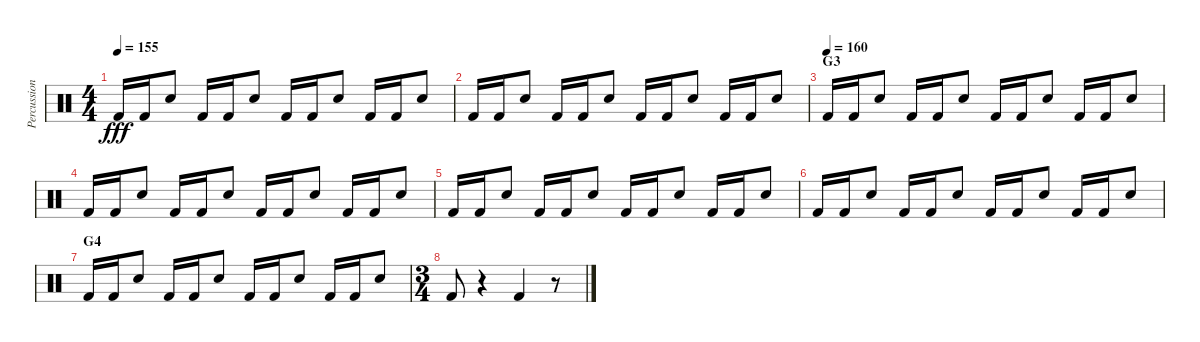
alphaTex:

\track ("Percussion" "Percussion") {instrument percussion}
\staff {score}
\articulation defaults
\ts (4 4)
\tempo 155
\clef neutral
\ks c "Kick (hit) 2".16{dy fff} "Kick (hit) 2".16 "Electric Snare (hit)".8 "Kick (hit) 2".16 "Kick (hit) 2".16 "Electric Snare (hit)".8 "Kick (hit) 2".16 "Kick (hit) 2".16 "Electric Snare (hit)".8 "Kick (hit) 2".16 "Kick (hit) 2".16 "Electric Snare (hit)".8
|
"Kick (hit) 2".16 "Kick (hit) 2".16 "Electric Snare (hit)".8 "Kick (hit) 2".16 "Kick (hit) 2".16 "Electric Snare (hit)".8 "Kick (hit) 2".16 "Kick (hit) 2".16 "Electric Snare (hit)".8 "Kick (hit) 2".16 "Kick (hit) 2".16 "Electric Snare (hit)".8 |
\section ("" "G3")
\tempo (160)
"Kick (hit) 2".16 "Kick (hit) 2".16 "Electric Snare (hit)".8 "Kick (hit) 2".16 "Kick (hit) 2".16 "Electric Snare (hit)".8 "Kick (hit) 2".16 "Kick (hit) 2".16 "Electric Snare (hit)".8 "Kick (hit) 2".16 "Kick (hit) 2".16 "Electric Snare (hit)".8 |
"Kick (hit) 2".16 "Kick (hit) 2".16 "Electric Snare (hit)".8 "Kick (hit) 2".16 "Kick (hit) 2".16 "Electric Snare (hit)".8 "Kick (hit) 2".16 "Kick (hit) 2".16 "Electric Snare (hit)".8 "Kick (hit) 2".16 "Kick (hit) 2".16 "Electric Snare (hit)".8 |
"Kick (hit) 2".16 "Kick (hit) 2".16 "Electric Snare (hit)".8 "Kick (hit) 2".16 "Kick (hit) 2".16 "Electric Snare (hit)".8 "Kick (hit) 2".16 "Kick (hit) 2".16 "Electric Snare (hit)".8 "Kick (hit) 2".16 "Kick (hit) 2".16 "Electric Snare (hit)".8 |
"Kick (hit) 2".16 "Kick (hit) 2".16 "Electric Snare (hit)".8 "Kick (hit) 2".16 "Kick (hit) 2".16 "Electric Snare (hit)".8 "Kick (hit) 2".16 "Kick (hit) 2".16 "Electric Snare (hit)".8 "Kick (hit) 2".16 "Kick (hit) 2".16 "Electric Snare (hit)".8 |
\section ("" "G4")
"Kick (hit) 2".16 "Kick (hit) 2".16 "Electric Snare (hit)".8 "Kick (hit) 2".16 "Kick (hit) 2".16 "Electric Snare (hit)".8 "Kick (hit) 2".16 "Kick (hit) 2".16 "Electric Snare (hit)".8 "Kick (hit) 2".16 "Kick (hit) 2".16 "Electric Snare (hit)".8 |
\ts (3 4)
"Kick (hit) 2".8 r.4 "Kick (hit) 2".4 r.8
